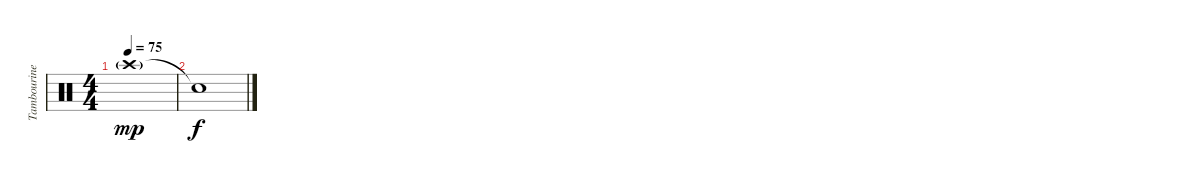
\track ("Tambourine" "Tambourine") {instrument percussion}
\staff {score}
\articulation defaults
\ts (4 4)
\tempo 75
\clef neutral
\ks c "Crash high (hit)"{g}.1{dy mp}
|
"Snare (hit)"{t}.1{dy f}
